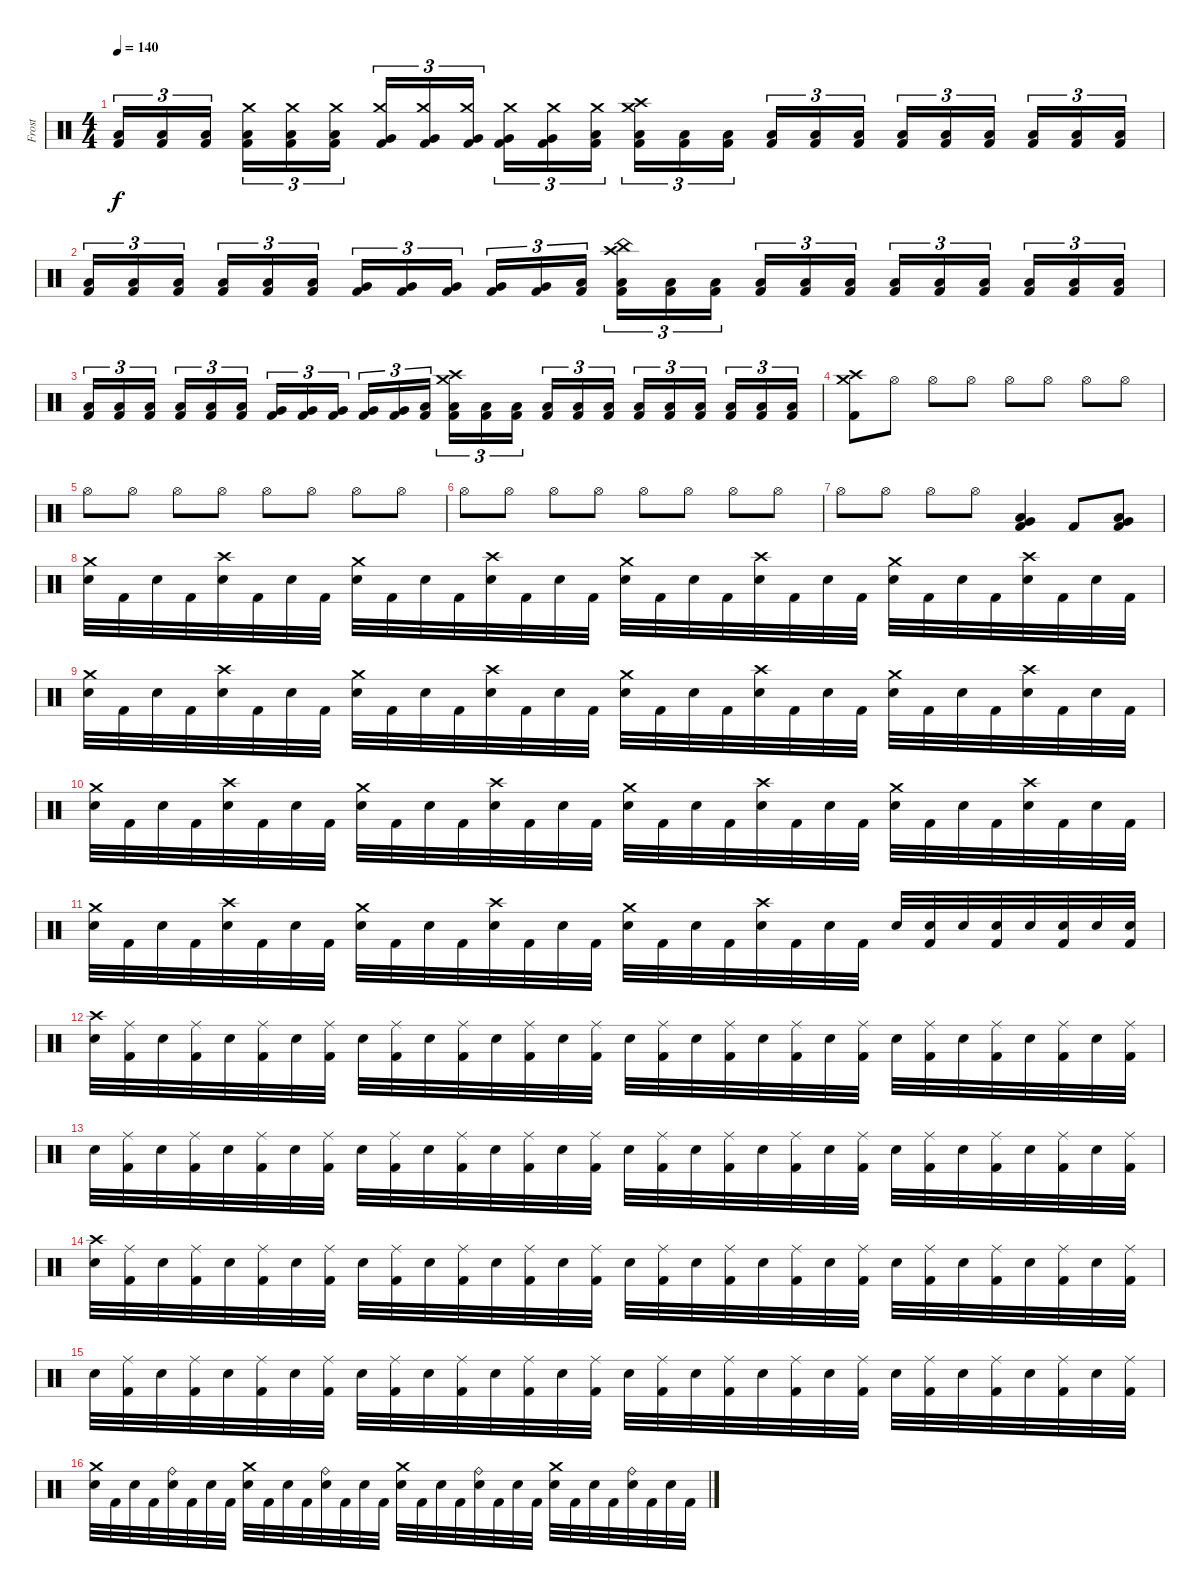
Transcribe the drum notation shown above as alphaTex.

\track ("Frost" "Frost") {instrument percussion}
\staff {score}
\articulation defaults
\ts (4 4)
\tempo 140
\clef neutral
\ks c
("Low Floor Tom (hit)" "Kick (hit) 2").16{tu (3 2) dy f} ("Low Floor Tom (hit)" "Kick (hit) 2").16{tu (3 2)} ("Low Floor Tom (hit)" "Kick (hit) 2").16{tu (3 2) beam splitsecondary} ("Crash medium (hit)" "Low Floor Tom (hit)" "Kick (hit) 2").16{tu (3 2)} ("Crash medium (hit)" "Low Floor Tom (hit)" "Kick (hit) 2").16{tu (3 2)} ("Crash medium (hit)" "Low Floor Tom (hit)" "Kick (hit) 2").16{tu (3 2)} ("Crash medium (hit)" "Very Low Tom (hit)" "Kick (hit) 2").16{tu (3 2)} ("Crash medium (hit)" "Very Low Tom (hit)" "Kick (hit) 2").16{tu (3 2)} ("Crash medium (hit)" "Very Low Tom (hit)" "Kick (hit) 2").16{tu (3 2) beam splitsecondary} ("Crash medium (hit)" "Very Low Tom (hit)" "Kick (hit) 2").16{tu (3 2)} ("Crash medium (hit)" "Very Low Tom (hit)" "Kick (hit) 2").16{tu (3 2)} ("Crash medium (hit)" "Low Floor Tom (hit)" "Kick (hit) 2").16{tu (3 2)} ("Crash high (hit)" "Crash medium (hit)" "Low Floor Tom (hit)" "Kick (hit) 2").16{tu (3 2)} ("Low Floor Tom (hit)" "Kick (hit) 2").16{tu (3 2)} ("Low Floor Tom (hit)" "Kick (hit) 2").16{tu (3 2) beam splitsecondary} ("Low Floor Tom (hit)" "Kick (hit) 2").16{tu (3 2)} ("Low Floor Tom (hit)" "Kick (hit) 2").16{tu (3 2)} ("Low Tom (hit)" "Kick (hit) 2").16{tu (3 2)} ("Low Tom (hit)" "Kick (hit) 2").16{tu (3 2)} ("Low Tom (hit)" "Kick (hit) 2").16{tu (3 2)} ("Low Tom (hit)" "Kick (hit) 2").16{tu (3 2) beam splitsecondary} ("Low Tom (hit)" "Kick (hit) 2").16{tu (3 2)} ("Low Tom (hit)" "Kick (hit) 2").16{tu (3 2)} ("Low Tom (hit)" "Kick (hit) 2").16{tu (3 2)} |
("Low Floor Tom (hit)" "Kick (hit) 2").16{tu (3 2)} ("Low Floor Tom (hit)" "Kick (hit) 2").16{tu (3 2)} ("Low Floor Tom (hit)" "Kick (hit) 2").16{tu (3 2) beam splitsecondary} ("Low Floor Tom (hit)" "Kick (hit) 2").16{tu (3 2)} ("Low Floor Tom (hit)" "Kick (hit) 2").16{tu (3 2)} ("Low Floor Tom (hit)" "Kick (hit) 2").16{tu (3 2)} ("Very Low Tom (hit)" "Kick (hit) 2").16{tu (3 2)} ("Very Low Tom (hit)" "Kick (hit) 2").16{tu (3 2)} ("Very Low Tom (hit)" "Kick (hit) 2").16{tu (3 2) beam splitsecondary} ("Very Low Tom (hit)" "Kick (hit) 2").16{tu (3 2)} ("Very Low Tom (hit)" "Kick (hit) 2").16{tu (3 2)} ("Low Floor Tom (hit)" "Kick (hit) 2").16{tu (3 2)} ("China (hit)" "Crash high (hit)" "Low Floor Tom (hit)" "Kick (hit) 2").16{tu (3 2)} ("Low Floor Tom (hit)" "Kick (hit) 2").16{tu (3 2)} ("Low Floor Tom (hit)" "Kick (hit) 2").16{tu (3 2) beam splitsecondary} ("Low Floor Tom (hit)" "Kick (hit) 2").16{tu (3 2)} ("Low Floor Tom (hit)" "Kick (hit) 2").16{tu (3 2)} ("Low Tom (hit)" "Kick (hit) 2").16{tu (3 2)} ("Low Tom (hit)" "Kick (hit) 2").16{tu (3 2)} ("Low Tom (hit)" "Kick (hit) 2").16{tu (3 2)} ("Low Tom (hit)" "Kick (hit) 2").16{tu (3 2) beam splitsecondary} ("Low Tom (hit)" "Kick (hit) 2").16{tu (3 2)} ("Low Tom (hit)" "Kick (hit) 2").16{tu (3 2)} ("Low Tom (hit)" "Kick (hit) 2").16{tu (3 2)} |
("Low Floor Tom (hit)" "Kick (hit) 2").16{tu (3 2)} ("Low Floor Tom (hit)" "Kick (hit) 2").16{tu (3 2)} ("Low Floor Tom (hit)" "Kick (hit) 2").16{tu (3 2) beam splitsecondary} ("Low Floor Tom (hit)" "Kick (hit) 2").16{tu (3 2)} ("Low Floor Tom (hit)" "Kick (hit) 2").16{tu (3 2)} ("Low Floor Tom (hit)" "Kick (hit) 2").16{tu (3 2)} ("Very Low Tom (hit)" "Kick (hit) 2").16{tu (3 2)} ("Very Low Tom (hit)" "Kick (hit) 2").16{tu (3 2)} ("Very Low Tom (hit)" "Kick (hit) 2").16{tu (3 2) beam splitsecondary} ("Very Low Tom (hit)" "Kick (hit) 2").16{tu (3 2)} ("Very Low Tom (hit)" "Kick (hit) 2").16{tu (3 2)} ("Low Floor Tom (hit)" "Kick (hit) 2").16{tu (3 2)} ("Crash high (hit)" "Crash medium (hit)" "Low Floor Tom (hit)" "Kick (hit) 2").16{tu (3 2)} ("Low Floor Tom (hit)" "Kick (hit) 2").16{tu (3 2)} ("Low Floor Tom (hit)" "Kick (hit) 2").16{tu (3 2) beam splitsecondary} ("Low Floor Tom (hit)" "Kick (hit) 2").16{tu (3 2)} ("Low Floor Tom (hit)" "Kick (hit) 2").16{tu (3 2)} ("Low Tom (hit)" "Kick (hit) 2").16{tu (3 2)} ("Low Tom (hit)" "Kick (hit) 2").16{tu (3 2)} ("Low Tom (hit)" "Kick (hit) 2").16{tu (3 2)} ("Low Tom (hit)" "Kick (hit) 2").16{tu (3 2) beam splitsecondary} ("Low Tom (hit)" "Kick (hit) 2").16{tu (3 2)} ("Low Tom (hit)" "Kick (hit) 2").16{tu (3 2)} ("Low Tom (hit)" "Kick (hit) 2").16{tu (3 2)} |
("Crash medium (hit)" "Crash high (hit)" "Kick (hit) 2").8 "Hi-Hat (open)".8 "Hi-Hat (open)".8 "Hi-Hat (open)".8 "Hi-Hat (open)".8 "Hi-Hat (open)".8 "Hi-Hat (open)".8 "Hi-Hat (open)".8 |
"Hi-Hat (open)".8 "Hi-Hat (open)".8 "Hi-Hat (open)".8 "Hi-Hat (open)".8 "Hi-Hat (open)".8 "Hi-Hat (open)".8 "Hi-Hat (open)".8 "Hi-Hat (open)".8 |
"Hi-Hat (open)".8 "Hi-Hat (open)".8 "Hi-Hat (open)".8 "Hi-Hat (open)".8 "Hi-Hat (open)".8 "Hi-Hat (open)".8 "Hi-Hat (open)".8 "Hi-Hat (open)".8 |
"Hi-Hat (open)".8 "Hi-Hat (open)".8 "Hi-Hat (open)".8 "Hi-Hat (open)".8 ("Low Tom (hit)" "Very Low Tom (hit)" "Kick (hit) 2").4 "Kick (hit) 2".8 ("Very Low Tom (hit)" "Low Floor Tom (hit)" "Kick (hit) 2").8 |
("Crash medium (hit)" "Snare (hit) 2").32 "Kick (hit) 2".32 "Snare (hit) 2".32 "Kick (hit) 2".32 ("Crash high (hit)" "Snare (hit) 2").32 "Kick (hit) 2".32 "Snare (hit) 2".32 "Kick (hit) 2".32 ("Crash medium (hit)" "Snare (hit) 2").32 "Kick (hit) 2".32 "Snare (hit) 2".32 "Kick (hit) 2".32 ("Crash high (hit)" "Snare (hit) 2").32 "Kick (hit) 2".32 "Snare (hit) 2".32 "Kick (hit) 2".32 ("Crash medium (hit)" "Snare (hit) 2").32 "Kick (hit) 2".32 "Snare (hit) 2".32 "Kick (hit) 2".32 ("Crash high (hit)" "Snare (hit) 2").32 "Kick (hit) 2".32 "Snare (hit) 2".32 "Kick (hit) 2".32 ("Crash medium (hit)" "Snare (hit) 2").32 "Kick (hit) 2".32 "Snare (hit) 2".32 "Kick (hit) 2".32 ("Crash high (hit)" "Snare (hit) 2").32 "Kick (hit) 2".32 "Snare (hit) 2".32 "Kick (hit) 2".32 |
("Crash medium (hit)" "Snare (hit) 2").32 "Kick (hit) 2".32 "Snare (hit) 2".32 "Kick (hit) 2".32 ("Crash high (hit)" "Snare (hit) 2").32 "Kick (hit) 2".32 "Snare (hit) 2".32 "Kick (hit) 2".32 ("Crash medium (hit)" "Snare (hit) 2").32 "Kick (hit) 2".32 "Snare (hit) 2".32 "Kick (hit) 2".32 ("Crash high (hit)" "Snare (hit) 2").32 "Kick (hit) 2".32 "Snare (hit) 2".32 "Kick (hit) 2".32 ("Crash medium (hit)" "Snare (hit) 2").32 "Kick (hit) 2".32 "Snare (hit) 2".32 "Kick (hit) 2".32 ("Crash high (hit)" "Snare (hit) 2").32 "Kick (hit) 2".32 "Snare (hit) 2".32 "Kick (hit) 2".32 ("Crash medium (hit)" "Snare (hit) 2").32 "Kick (hit) 2".32 "Snare (hit) 2".32 "Kick (hit) 2".32 ("Crash high (hit)" "Snare (hit) 2").32 "Kick (hit) 2".32 "Snare (hit) 2".32 "Kick (hit) 2".32 |
("Crash medium (hit)" "Snare (hit) 2").32 "Kick (hit) 2".32 "Snare (hit) 2".32 "Kick (hit) 2".32 ("Crash high (hit)" "Snare (hit) 2").32 "Kick (hit) 2".32 "Snare (hit) 2".32 "Kick (hit) 2".32 ("Crash medium (hit)" "Snare (hit) 2").32 "Kick (hit) 2".32 "Snare (hit) 2".32 "Kick (hit) 2".32 ("Crash high (hit)" "Snare (hit) 2").32 "Kick (hit) 2".32 "Snare (hit) 2".32 "Kick (hit) 2".32 ("Crash medium (hit)" "Snare (hit) 2").32 "Kick (hit) 2".32 "Snare (hit) 2".32 "Kick (hit) 2".32 ("Crash high (hit)" "Snare (hit) 2").32 "Kick (hit) 2".32 "Snare (hit) 2".32 "Kick (hit) 2".32 ("Crash medium (hit)" "Snare (hit) 2").32 "Kick (hit) 2".32 "Snare (hit) 2".32 "Kick (hit) 2".32 ("Crash high (hit)" "Snare (hit) 2").32 "Kick (hit) 2".32 "Snare (hit) 2".32 "Kick (hit) 2".32 |
("Crash medium (hit)" "Snare (hit) 2").32 "Kick (hit) 2".32 "Snare (hit) 2".32 "Kick (hit) 2".32 ("Crash high (hit)" "Snare (hit) 2").32 "Kick (hit) 2".32 "Snare (hit) 2".32 "Kick (hit) 2".32 ("Crash medium (hit)" "Snare (hit) 2").32 "Kick (hit) 2".32 "Snare (hit) 2".32 "Kick (hit) 2".32 ("Crash high (hit)" "Snare (hit) 2").32 "Kick (hit) 2".32 "Snare (hit) 2".32 "Kick (hit) 2".32 ("Crash medium (hit)" "Snare (hit) 2").32 "Kick (hit) 2".32 "Snare (hit) 2".32 "Kick (hit) 2".32 ("Crash high (hit)" "Snare (hit) 2").32 "Kick (hit) 2".32 "Snare (hit) 2".32 "Kick (hit) 2".32 "Snare (hit) 2".32 ("Snare (hit) 2" "Kick (hit) 2").32 "Snare (hit) 2".32 ("Snare (hit) 2" "Kick (hit) 2").32 "Snare (hit) 2".32 ("Snare (hit) 2" "Kick (hit) 2").32 "Snare (hit) 2".32 ("Snare (hit) 2" "Kick (hit) 2").32 |
("Crash high (hit)" "Snare (hit) 2").32 ("Ride (middle)" "Kick (hit) 2").32 "Snare (hit) 2".32 ("Ride (middle)" "Kick (hit) 2").32 "Snare (hit) 2".32 ("Ride (middle)" "Kick (hit) 2").32 "Snare (hit) 2".32 ("Ride (middle)" "Kick (hit) 2").32 "Snare (hit) 2".32 ("Ride (middle)" "Kick (hit) 2").32 "Snare (hit) 2".32 ("Ride (middle)" "Kick (hit) 2").32 "Snare (hit) 2".32 ("Ride (middle)" "Kick (hit) 2").32 "Snare (hit) 2".32 ("Ride (middle)" "Kick (hit) 2").32 "Snare (hit) 2".32 ("Ride (middle)" "Kick (hit) 2").32 "Snare (hit) 2".32 ("Ride (middle)" "Kick (hit) 2").32 "Snare (hit) 2".32 ("Ride (middle)" "Kick (hit) 2").32 "Snare (hit) 2".32 ("Ride (middle)" "Kick (hit) 2").32 "Snare (hit) 2".32 ("Ride (middle)" "Kick (hit) 2").32 "Snare (hit) 2".32 ("Ride (middle)" "Kick (hit) 2").32 "Snare (hit) 2".32 ("Ride (middle)" "Kick (hit) 2").32 "Snare (hit) 2".32 ("Ride (middle)" "Kick (hit) 2").32 |
"Snare (hit) 2".32 ("Ride (middle)" "Kick (hit) 2").32 "Snare (hit) 2".32 ("Ride (middle)" "Kick (hit) 2").32 "Snare (hit) 2".32 ("Ride (middle)" "Kick (hit) 2").32 "Snare (hit) 2".32 ("Ride (middle)" "Kick (hit) 2").32 "Snare (hit) 2".32 ("Ride (middle)" "Kick (hit) 2").32 "Snare (hit) 2".32 ("Ride (middle)" "Kick (hit) 2").32 "Snare (hit) 2".32 ("Ride (middle)" "Kick (hit) 2").32 "Snare (hit) 2".32 ("Ride (middle)" "Kick (hit) 2").32 "Snare (hit) 2".32 ("Ride (middle)" "Kick (hit) 2").32 "Snare (hit) 2".32 ("Ride (middle)" "Kick (hit) 2").32 "Snare (hit) 2".32 ("Ride (middle)" "Kick (hit) 2").32 "Snare (hit) 2".32 ("Ride (middle)" "Kick (hit) 2").32 "Snare (hit) 2".32 ("Ride (middle)" "Kick (hit) 2").32 "Snare (hit) 2".32 ("Ride (middle)" "Kick (hit) 2").32 "Snare (hit) 2".32 ("Ride (middle)" "Kick (hit) 2").32 "Snare (hit) 2".32 ("Ride (middle)" "Kick (hit) 2").32 |
("Crash high (hit)" "Snare (hit) 2").32 ("Ride (middle)" "Kick (hit) 2").32 "Snare (hit) 2".32 ("Ride (middle)" "Kick (hit) 2").32 "Snare (hit) 2".32 ("Ride (middle)" "Kick (hit) 2").32 "Snare (hit) 2".32 ("Ride (middle)" "Kick (hit) 2").32 "Snare (hit) 2".32 ("Ride (middle)" "Kick (hit) 2").32 "Snare (hit) 2".32 ("Ride (middle)" "Kick (hit) 2").32 "Snare (hit) 2".32 ("Ride (middle)" "Kick (hit) 2").32 "Snare (hit) 2".32 ("Ride (middle)" "Kick (hit) 2").32 "Snare (hit) 2".32 ("Ride (middle)" "Kick (hit) 2").32 "Snare (hit) 2".32 ("Ride (middle)" "Kick (hit) 2").32 "Snare (hit) 2".32 ("Ride (middle)" "Kick (hit) 2").32 "Snare (hit) 2".32 ("Ride (middle)" "Kick (hit) 2").32 "Snare (hit) 2".32 ("Ride (middle)" "Kick (hit) 2").32 "Snare (hit) 2".32 ("Ride (middle)" "Kick (hit) 2").32 "Snare (hit) 2".32 ("Ride (middle)" "Kick (hit) 2").32 "Snare (hit) 2".32 ("Ride (middle)" "Kick (hit) 2").32 |
"Snare (hit) 2".32 ("Ride (middle)" "Kick (hit) 2").32 "Snare (hit) 2".32 ("Ride (middle)" "Kick (hit) 2").32 "Snare (hit) 2".32 ("Ride (middle)" "Kick (hit) 2").32 "Snare (hit) 2".32 ("Ride (middle)" "Kick (hit) 2").32 "Snare (hit) 2".32 ("Ride (middle)" "Kick (hit) 2").32 "Snare (hit) 2".32 ("Ride (middle)" "Kick (hit) 2").32 "Snare (hit) 2".32 ("Ride (middle)" "Kick (hit) 2").32 "Snare (hit) 2".32 ("Ride (middle)" "Kick (hit) 2").32 "Snare (hit) 2".32 ("Ride (middle)" "Kick (hit) 2").32 "Snare (hit) 2".32 ("Ride (middle)" "Kick (hit) 2").32 "Snare (hit) 2".32 ("Ride (middle)" "Kick (hit) 2").32 "Snare (hit) 2".32 ("Ride (middle)" "Kick (hit) 2").32 "Snare (hit) 2".32 ("Ride (middle)" "Kick (hit) 2").32 "Snare (hit) 2".32 ("Ride (middle)" "Kick (hit) 2").32 "Snare (hit) 2".32 ("Ride (middle)" "Kick (hit) 2").32 "Snare (hit) 2".32 ("Ride (middle)" "Kick (hit) 2").32 |
("Crash medium (hit)" "Snare (hit) 2").32 "Kick (hit) 2".32 "Snare (hit) 2".32 "Kick (hit) 2".32 ("Ride (bell)" "Snare (hit) 2").32 "Kick (hit) 2".32 "Snare (hit) 2".32 "Kick (hit) 2".32 ("Crash medium (hit)" "Snare (hit) 2").32 "Kick (hit) 2".32 "Snare (hit) 2".32 "Kick (hit) 2".32 ("Ride (bell)" "Snare (hit) 2").32 "Kick (hit) 2".32 "Snare (hit) 2".32 "Kick (hit) 2".32 ("Crash medium (hit)" "Snare (hit) 2").32 "Kick (hit) 2".32 "Snare (hit) 2".32 "Kick (hit) 2".32 ("Ride (bell)" "Snare (hit) 2").32 "Kick (hit) 2".32 "Snare (hit) 2".32 "Kick (hit) 2".32 ("Crash medium (hit)" "Snare (hit) 2").32 "Kick (hit) 2".32 "Snare (hit) 2".32 "Kick (hit) 2".32 ("Ride (bell)" "Snare (hit) 2").32 "Kick (hit) 2".32 "Snare (hit) 2".32 "Kick (hit) 2".32
